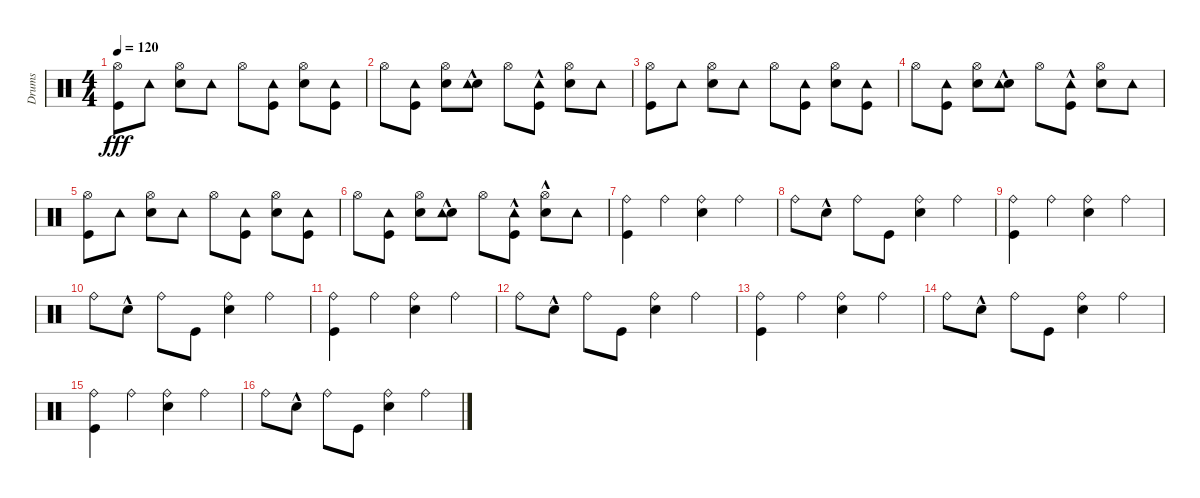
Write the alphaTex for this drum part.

\track ("Drums" "Drums") {instrument percussion}
\staff {score}
\articulation defaults
\ts (4 4)
\tempo 120
\clef neutral
\ks c
("Kick (hit)" "Hi-Hat (open)").8{dy fff} "Tambourine (hit)".8 ("Snare (hit) 2" "Hi-Hat (open)").8 "Tambourine (hit)".8 "Hi-Hat (open)".8 ("Kick (hit)" "Tambourine (hit)").8 ("Snare (hit) 2" "Hi-Hat (open)").8 ("Kick (hit)" "Tambourine (hit)").8 |
"Hi-Hat (open)".8 ("Kick (hit)" "Tambourine (hit)").8 ("Snare (hit) 2" "Hi-Hat (open)").8 ("Snare (hit) 2"{hac} "Tambourine (hit)").8 "Hi-Hat (open)".8 ("Kick (hit)"{hac} "Tambourine (hit)").8 ("Snare (hit) 2" "Hi-Hat (open)").8 "Tambourine (hit)".8 |
("Kick (hit)" "Hi-Hat (open)").8 "Tambourine (hit)".8 ("Snare (hit) 2" "Hi-Hat (open)").8 "Tambourine (hit)".8 "Hi-Hat (open)".8 ("Kick (hit)" "Tambourine (hit)").8 ("Snare (hit) 2" "Hi-Hat (open)").8 ("Kick (hit)" "Tambourine (hit)").8 |
"Hi-Hat (open)".8 ("Kick (hit)" "Tambourine (hit)").8 ("Snare (hit) 2" "Hi-Hat (open)").8 ("Snare (hit) 2"{hac} "Tambourine (hit)").8 "Hi-Hat (open)".8 ("Kick (hit)"{hac} "Tambourine (hit)").8 ("Snare (hit) 2" "Hi-Hat (open)").8 "Tambourine (hit)".8 |
("Kick (hit)" "Hi-Hat (open)").8 "Tambourine (hit)".8 ("Snare (hit) 2" "Hi-Hat (open)").8 "Tambourine (hit)".8 "Hi-Hat (open)".8 ("Kick (hit)" "Tambourine (hit)").8 ("Snare (hit) 2" "Hi-Hat (open)").8 ("Kick (hit)" "Tambourine (hit)").8 |
"Hi-Hat (open)".8 ("Kick (hit)" "Tambourine (hit)").8 ("Snare (hit) 2" "Hi-Hat (open)").8 ("Snare (hit) 2"{hac} "Tambourine (hit)").8 "Hi-Hat (open)".8 ("Kick (hit)"{hac} "Tambourine (hit)").8 ("Snare (hit) 2"{hac} "Hi-Hat (open)").8 "Tambourine (hit)".8 |
("Kick (hit)" "Ride (bell)").4 "Ride (bell)".4 ("Snare (hit) 2" "Ride (bell)").4 "Ride (bell)".4 |
"Ride (bell)".8 "Snare (hit) 2"{hac}.8 "Ride (bell)".8 "Kick (hit)".8 ("Snare (hit) 2" "Ride (bell)").4 "Ride (bell)".4 |
("Kick (hit)" "Ride (bell)").4 "Ride (bell)".4 ("Snare (hit) 2" "Ride (bell)").4 "Ride (bell)".4 |
"Ride (bell)".8 "Snare (hit) 2"{hac}.8 "Ride (bell)".8 "Kick (hit)".8 ("Snare (hit) 2" "Ride (bell)").4 "Ride (bell)".4 |
("Kick (hit)" "Ride (bell)").4 "Ride (bell)".4 ("Snare (hit) 2" "Ride (bell)").4 "Ride (bell)".4 |
"Ride (bell)".8 "Snare (hit) 2"{hac}.8 "Ride (bell)".8 "Kick (hit)".8 ("Snare (hit) 2" "Ride (bell)").4 "Ride (bell)".4 |
("Kick (hit)" "Ride (bell)").4 "Ride (bell)".4 ("Snare (hit) 2" "Ride (bell)").4 "Ride (bell)".4 |
"Ride (bell)".8 "Snare (hit) 2"{hac}.8 "Ride (bell)".8 "Kick (hit)".8 ("Snare (hit) 2" "Ride (bell)").4 "Ride (bell)".4 |
("Kick (hit)" "Ride (bell)").4 "Ride (bell)".4 ("Snare (hit) 2" "Ride (bell)").4 "Ride (bell)".4 |
"Ride (bell)".8 "Snare (hit) 2"{hac}.8 "Ride (bell)".8 "Kick (hit)".8 ("Snare (hit) 2" "Ride (bell)").4 "Ride (bell)".4
